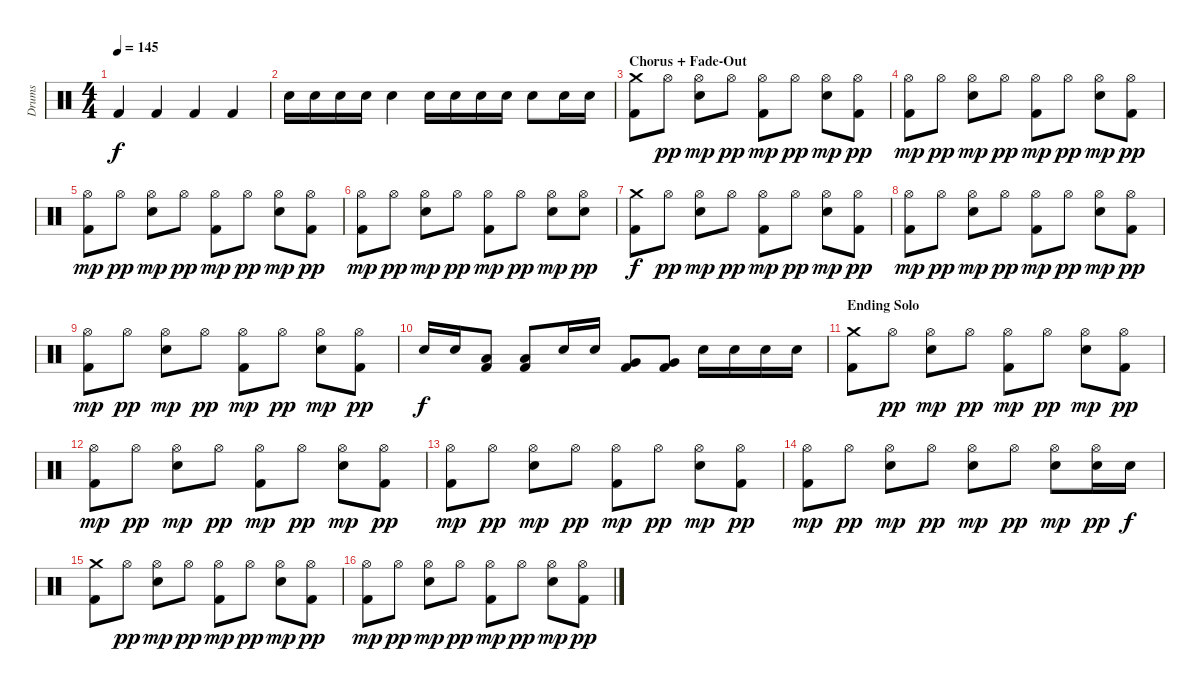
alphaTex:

\track ("Drums" "Drums") {instrument percussion}
\staff {score}
\articulation defaults
\ts (4 4)
\tempo 145
\clef neutral
\ks c "Kick (hit) 2".4{dy f} "Kick (hit) 2".4 "Kick (hit) 2".4 "Kick (hit) 2".4
|
"Snare (hit) 2".16 "Snare (hit) 2".16 "Snare (hit) 2".16 "Snare (hit) 2".16 "Snare (hit) 2".4 "Snare (hit) 2".16 "Snare (hit) 2".16 "Snare (hit) 2".16 "Snare (hit) 2".16 "Snare (hit) 2".8 "Snare (hit) 2".16 "Snare (hit) 2".16 |
\section ("" "Chorus + Fade-Out")
("Crash medium (hit)" "Kick (hit) 2").8 "Hi-Hat (open)".8{dy pp} ("Hi-Hat (open)" "Snare (hit) 2").8{dy mp} "Hi-Hat (open)".8{dy pp} ("Hi-Hat (open)" "Kick (hit) 2").8{dy mp} "Hi-Hat (open)".8{dy pp} ("Hi-Hat (open)" "Snare (hit) 2").8{dy mp} ("Hi-Hat (open)" "Kick (hit) 2").8{dy pp} |
("Hi-Hat (open)" "Kick (hit) 2").8{dy mp} "Hi-Hat (open)".8{dy pp} ("Hi-Hat (open)" "Snare (hit) 2").8{dy mp} "Hi-Hat (open)".8{dy pp} ("Hi-Hat (open)" "Kick (hit) 2").8{dy mp} "Hi-Hat (open)".8{dy pp} ("Hi-Hat (open)" "Snare (hit) 2").8{dy mp} ("Hi-Hat (open)" "Kick (hit) 2").8{dy pp} |
("Hi-Hat (open)" "Kick (hit) 2").8{dy mp} "Hi-Hat (open)".8{dy pp} ("Hi-Hat (open)" "Snare (hit) 2").8{dy mp} "Hi-Hat (open)".8{dy pp} ("Hi-Hat (open)" "Kick (hit) 2").8{dy mp} "Hi-Hat (open)".8{dy pp} ("Hi-Hat (open)" "Snare (hit) 2").8{dy mp} ("Hi-Hat (open)" "Kick (hit) 2").8{dy pp} |
("Hi-Hat (open)" "Kick (hit) 2").8{dy mp} "Hi-Hat (open)".8{dy pp} ("Hi-Hat (open)" "Snare (hit) 2").8{dy mp} "Hi-Hat (open)".8{dy pp} ("Hi-Hat (open)" "Kick (hit) 2").8{dy mp} "Hi-Hat (open)".8{dy pp} ("Hi-Hat (open)" "Snare (hit) 2").8{dy mp} ("Hi-Hat (open)" "Snare (hit) 2").8{dy pp} |
("Crash medium (hit)" "Kick (hit) 2").8{dy f} "Hi-Hat (open)".8{dy pp} ("Hi-Hat (open)" "Snare (hit) 2").8{dy mp} "Hi-Hat (open)".8{dy pp} ("Hi-Hat (open)" "Kick (hit) 2").8{dy mp} "Hi-Hat (open)".8{dy pp} ("Hi-Hat (open)" "Snare (hit) 2").8{dy mp} ("Hi-Hat (open)" "Kick (hit) 2").8{dy pp} |
("Hi-Hat (open)" "Kick (hit) 2").8{dy mp} "Hi-Hat (open)".8{dy pp} ("Hi-Hat (open)" "Snare (hit) 2").8{dy mp} "Hi-Hat (open)".8{dy pp} ("Hi-Hat (open)" "Kick (hit) 2").8{dy mp} "Hi-Hat (open)".8{dy pp} ("Hi-Hat (open)" "Snare (hit) 2").8{dy mp} ("Hi-Hat (open)" "Kick (hit) 2").8{dy pp} |
("Hi-Hat (open)" "Kick (hit) 2").8{dy mp} "Hi-Hat (open)".8{dy pp} ("Hi-Hat (open)" "Snare (hit) 2").8{dy mp} "Hi-Hat (open)".8{dy pp} ("Hi-Hat (open)" "Kick (hit) 2").8{dy mp} "Hi-Hat (open)".8{dy pp} ("Hi-Hat (open)" "Snare (hit) 2").8{dy mp} ("Hi-Hat (open)" "Kick (hit) 2").8{dy pp} |
"Snare (hit) 2".16{dy f} "Snare (hit) 2".16 ("Low Tom (hit)" "Kick (hit) 2").8 ("Low Tom (hit)" "Kick (hit) 2").8 "Snare (hit) 2".16 "Snare (hit) 2".16 ("Very Low Tom (hit)" "Kick (hit) 2").8 ("Very Low Tom (hit)" "Kick (hit) 2").8 "Snare (hit) 2".16 "Snare (hit) 2".16 "Snare (hit) 2".16 "Snare (hit) 2".16 |
\section ("" "Ending Solo ")
("Crash medium (hit)" "Kick (hit) 2").8 "Hi-Hat (open)".8{dy pp} ("Hi-Hat (open)" "Snare (hit) 2").8{dy mp} "Hi-Hat (open)".8{dy pp} ("Hi-Hat (open)" "Kick (hit) 2").8{dy mp} "Hi-Hat (open)".8{dy pp} ("Hi-Hat (open)" "Snare (hit) 2").8{dy mp} ("Hi-Hat (open)" "Kick (hit) 2").8{dy pp} |
("Hi-Hat (open)" "Kick (hit) 2").8{dy mp} "Hi-Hat (open)".8{dy pp} ("Hi-Hat (open)" "Snare (hit) 2").8{dy mp} "Hi-Hat (open)".8{dy pp} ("Hi-Hat (open)" "Kick (hit) 2").8{dy mp} "Hi-Hat (open)".8{dy pp} ("Hi-Hat (open)" "Snare (hit) 2").8{dy mp} ("Hi-Hat (open)" "Kick (hit) 2").8{dy pp} |
("Hi-Hat (open)" "Kick (hit) 2").8{dy mp} "Hi-Hat (open)".8{dy pp} ("Hi-Hat (open)" "Snare (hit) 2").8{dy mp} "Hi-Hat (open)".8{dy pp} ("Hi-Hat (open)" "Kick (hit) 2").8{dy mp} "Hi-Hat (open)".8{dy pp} ("Hi-Hat (open)" "Snare (hit) 2").8{dy mp} ("Hi-Hat (open)" "Kick (hit) 2").8{dy pp} |
("Hi-Hat (open)" "Kick (hit) 2").8{dy mp} "Hi-Hat (open)".8{dy pp} ("Hi-Hat (open)" "Snare (hit) 2").8{dy mp} "Hi-Hat (open)".8{dy pp} ("Hi-Hat (open)" "Snare (hit) 2").8{dy mp} "Hi-Hat (open)".8{dy pp} ("Hi-Hat (open)" "Snare (hit) 2").8{dy mp} ("Hi-Hat (open)" "Snare (hit) 2").16{dy pp} "Snare (hit) 2".16{dy f} |
("Crash medium (hit)" "Kick (hit) 2").8 "Hi-Hat (open)".8{dy pp} ("Hi-Hat (open)" "Snare (hit) 2").8{dy mp} "Hi-Hat (open)".8{dy pp} ("Hi-Hat (open)" "Kick (hit) 2").8{dy mp} "Hi-Hat (open)".8{dy pp} ("Hi-Hat (open)" "Snare (hit) 2").8{dy mp} ("Hi-Hat (open)" "Kick (hit) 2").8{dy pp} |
("Hi-Hat (open)" "Kick (hit) 2").8{dy mp} "Hi-Hat (open)".8{dy pp} ("Hi-Hat (open)" "Snare (hit) 2").8{dy mp} "Hi-Hat (open)".8{dy pp} ("Hi-Hat (open)" "Kick (hit) 2").8{dy mp} "Hi-Hat (open)".8{dy pp} ("Hi-Hat (open)" "Snare (hit) 2").8{dy mp} ("Hi-Hat (open)" "Kick (hit) 2").8{dy pp}
